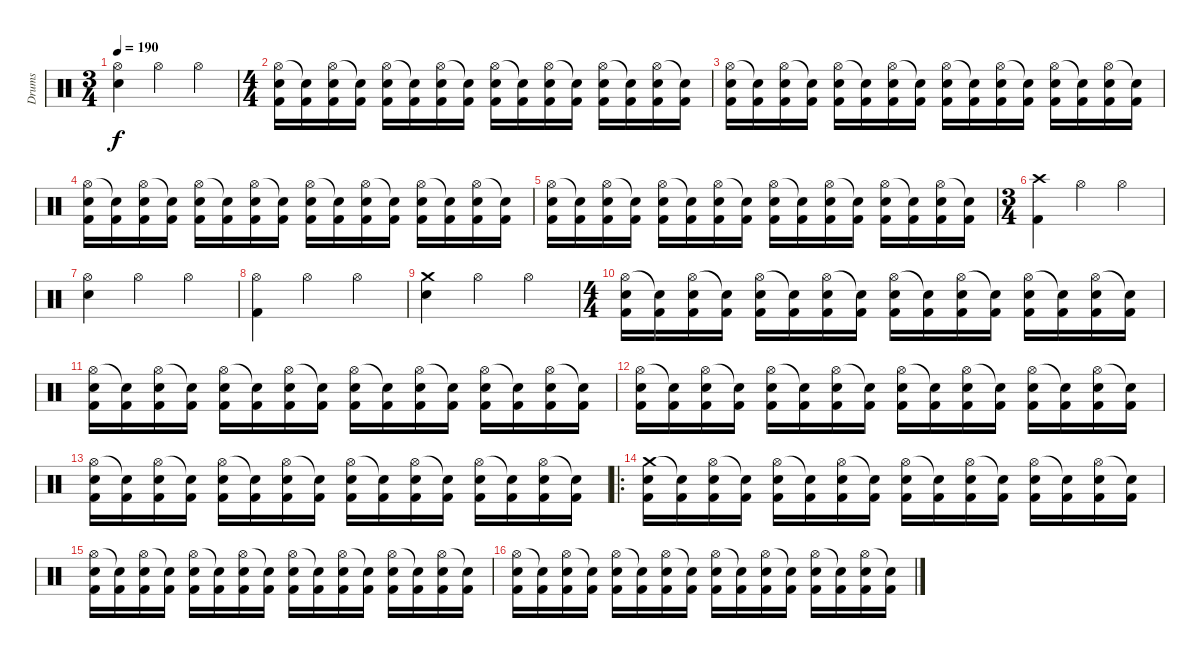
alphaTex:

\track ("Drums" "Drums") {instrument percussion}
\staff {score}
\articulation defaults
\ts (3 4)
\tempo 190
\clef neutral
\ks c
("Hi-Hat (open)" "Electric Snare (hit)").4{dy f} "Hi-Hat (open)".4 "Hi-Hat (open)".4 |
\ts (4 4)
("Hi-Hat (open)" "Electric Snare (hit)" "Kick (hit) 2").16 ("Snare (hit)"{t} "Kick (hit) 2").16 ("Hi-Hat (open)" "Electric Snare (hit)" "Kick (hit) 2").16 ("Snare (hit)"{t} "Kick (hit) 2").16 ("Hi-Hat (open)" "Electric Snare (hit)" "Kick (hit) 2").16 ("Snare (hit)"{t} "Kick (hit) 2").16 ("Hi-Hat (open)" "Electric Snare (hit)" "Kick (hit) 2").16 ("Snare (hit)"{t} "Kick (hit) 2").16 ("Hi-Hat (open)" "Electric Snare (hit)" "Kick (hit) 2").16 ("Snare (hit)"{t} "Kick (hit) 2").16 ("Hi-Hat (open)" "Electric Snare (hit)" "Kick (hit) 2").16 ("Snare (hit)"{t} "Kick (hit) 2").16 ("Hi-Hat (open)" "Electric Snare (hit)" "Kick (hit) 2").16 ("Snare (hit)"{t} "Kick (hit) 2").16 ("Hi-Hat (open)" "Electric Snare (hit)" "Kick (hit) 2").16 ("Snare (hit)"{t} "Kick (hit) 2").16 |
("Hi-Hat (open)" "Electric Snare (hit)" "Kick (hit) 2").16 ("Snare (hit)"{t} "Kick (hit) 2").16 ("Hi-Hat (open)" "Electric Snare (hit)" "Kick (hit) 2").16 ("Snare (hit)"{t} "Kick (hit) 2").16 ("Hi-Hat (open)" "Electric Snare (hit)" "Kick (hit) 2").16 ("Snare (hit)"{t} "Kick (hit) 2").16 ("Hi-Hat (open)" "Electric Snare (hit)" "Kick (hit) 2").16 ("Snare (hit)"{t} "Kick (hit) 2").16 ("Hi-Hat (open)" "Electric Snare (hit)" "Kick (hit) 2").16 ("Snare (hit)"{t} "Kick (hit) 2").16 ("Hi-Hat (open)" "Electric Snare (hit)" "Kick (hit) 2").16 ("Snare (hit)"{t} "Kick (hit) 2").16 ("Hi-Hat (open)" "Electric Snare (hit)" "Kick (hit) 2").16 ("Snare (hit)"{t} "Kick (hit) 2").16 ("Hi-Hat (open)" "Electric Snare (hit)" "Kick (hit) 2").16 ("Snare (hit)"{t} "Kick (hit) 2").16 |
("Hi-Hat (open)" "Electric Snare (hit)" "Kick (hit) 2").16 ("Snare (hit)"{t} "Kick (hit) 2").16 ("Hi-Hat (open)" "Electric Snare (hit)" "Kick (hit) 2").16 ("Snare (hit)"{t} "Kick (hit) 2").16 ("Hi-Hat (open)" "Electric Snare (hit)" "Kick (hit) 2").16 ("Snare (hit)"{t} "Kick (hit) 2").16 ("Hi-Hat (open)" "Electric Snare (hit)" "Kick (hit) 2").16 ("Snare (hit)"{t} "Kick (hit) 2").16 ("Hi-Hat (open)" "Electric Snare (hit)" "Kick (hit) 2").16 ("Snare (hit)"{t} "Kick (hit) 2").16 ("Hi-Hat (open)" "Electric Snare (hit)" "Kick (hit) 2").16 ("Snare (hit)"{t} "Kick (hit) 2").16 ("Hi-Hat (open)" "Electric Snare (hit)" "Kick (hit) 2").16 ("Snare (hit)"{t} "Kick (hit) 2").16 ("Hi-Hat (open)" "Electric Snare (hit)" "Kick (hit) 2").16 ("Snare (hit)"{t} "Kick (hit) 2").16 |
("Hi-Hat (open)" "Electric Snare (hit)" "Kick (hit) 2").16 ("Snare (hit)"{t} "Kick (hit) 2").16 ("Hi-Hat (open)" "Electric Snare (hit)" "Kick (hit) 2").16 ("Snare (hit)"{t} "Kick (hit) 2").16 ("Hi-Hat (open)" "Electric Snare (hit)" "Kick (hit) 2").16 ("Snare (hit)"{t} "Kick (hit) 2").16 ("Hi-Hat (open)" "Electric Snare (hit)" "Kick (hit) 2").16 ("Snare (hit)"{t} "Kick (hit) 2").16 ("Hi-Hat (open)" "Electric Snare (hit)" "Kick (hit) 2").16 ("Snare (hit)"{t} "Kick (hit) 2").16 ("Hi-Hat (open)" "Electric Snare (hit)" "Kick (hit) 2").16 ("Snare (hit)"{t} "Kick (hit) 2").16 ("Hi-Hat (open)" "Electric Snare (hit)" "Kick (hit) 2").16 ("Snare (hit)"{t} "Kick (hit) 2").16 ("Hi-Hat (open)" "Electric Snare (hit)" "Kick (hit) 2").16 ("Snare (hit)"{t} "Kick (hit) 2").16 |
\ts (3 4)
("Crash high (hit)" "Kick (hit) 2").4 "Hi-Hat (open)".4 "Hi-Hat (open)".4 |
("Hi-Hat (open)" "Electric Snare (hit)").4 "Hi-Hat (open)".4 "Hi-Hat (open)".4 |
("Hi-Hat (open)" "Kick (hit) 2").4 "Hi-Hat (open)".4 "Hi-Hat (open)".4 |
("Crash medium (hit)" "Electric Snare (hit)").4 "Hi-Hat (open)".4 "Hi-Hat (open)".4 |
\ts (4 4)
("Hi-Hat (open)" "Electric Snare (hit)" "Kick (hit) 2").16 ("Snare (hit)"{t} "Kick (hit) 2").16 ("Hi-Hat (open)" "Electric Snare (hit)" "Kick (hit) 2").16 ("Snare (hit)"{t} "Kick (hit) 2").16 ("Hi-Hat (open)" "Electric Snare (hit)" "Kick (hit) 2").16 ("Snare (hit)"{t} "Kick (hit) 2").16 ("Hi-Hat (open)" "Electric Snare (hit)" "Kick (hit) 2").16 ("Snare (hit)"{t} "Kick (hit) 2").16 ("Hi-Hat (open)" "Electric Snare (hit)" "Kick (hit) 2").16 ("Snare (hit)"{t} "Kick (hit) 2").16 ("Hi-Hat (open)" "Electric Snare (hit)" "Kick (hit) 2").16 ("Snare (hit)"{t} "Kick (hit) 2").16 ("Hi-Hat (open)" "Electric Snare (hit)" "Kick (hit) 2").16 ("Snare (hit)"{t} "Kick (hit) 2").16 ("Hi-Hat (open)" "Electric Snare (hit)" "Kick (hit) 2").16 ("Snare (hit)"{t} "Kick (hit) 2").16 |
("Hi-Hat (open)" "Electric Snare (hit)" "Kick (hit) 2").16 ("Snare (hit)"{t} "Kick (hit) 2").16 ("Hi-Hat (open)" "Electric Snare (hit)" "Kick (hit) 2").16 ("Snare (hit)"{t} "Kick (hit) 2").16 ("Hi-Hat (open)" "Electric Snare (hit)" "Kick (hit) 2").16 ("Snare (hit)"{t} "Kick (hit) 2").16 ("Hi-Hat (open)" "Electric Snare (hit)" "Kick (hit) 2").16 ("Snare (hit)"{t} "Kick (hit) 2").16 ("Hi-Hat (open)" "Electric Snare (hit)" "Kick (hit) 2").16 ("Snare (hit)"{t} "Kick (hit) 2").16 ("Hi-Hat (open)" "Electric Snare (hit)" "Kick (hit) 2").16 ("Snare (hit)"{t} "Kick (hit) 2").16 ("Hi-Hat (open)" "Electric Snare (hit)" "Kick (hit) 2").16 ("Snare (hit)"{t} "Kick (hit) 2").16 ("Hi-Hat (open)" "Electric Snare (hit)" "Kick (hit) 2").16 ("Snare (hit)"{t} "Kick (hit) 2").16 |
("Hi-Hat (open)" "Electric Snare (hit)" "Kick (hit) 2").16 ("Snare (hit)"{t} "Kick (hit) 2").16 ("Hi-Hat (open)" "Electric Snare (hit)" "Kick (hit) 2").16 ("Snare (hit)"{t} "Kick (hit) 2").16 ("Hi-Hat (open)" "Electric Snare (hit)" "Kick (hit) 2").16 ("Snare (hit)"{t} "Kick (hit) 2").16 ("Hi-Hat (open)" "Electric Snare (hit)" "Kick (hit) 2").16 ("Snare (hit)"{t} "Kick (hit) 2").16 ("Hi-Hat (open)" "Electric Snare (hit)" "Kick (hit) 2").16 ("Snare (hit)"{t} "Kick (hit) 2").16 ("Hi-Hat (open)" "Electric Snare (hit)" "Kick (hit) 2").16 ("Snare (hit)"{t} "Kick (hit) 2").16 ("Hi-Hat (open)" "Electric Snare (hit)" "Kick (hit) 2").16 ("Snare (hit)"{t} "Kick (hit) 2").16 ("Hi-Hat (open)" "Electric Snare (hit)" "Kick (hit) 2").16 ("Snare (hit)"{t} "Kick (hit) 2").16 |
("Hi-Hat (open)" "Electric Snare (hit)" "Kick (hit) 2").16 ("Snare (hit)"{t} "Kick (hit) 2").16 ("Hi-Hat (open)" "Electric Snare (hit)" "Kick (hit) 2").16 ("Snare (hit)"{t} "Kick (hit) 2").16 ("Hi-Hat (open)" "Electric Snare (hit)" "Kick (hit) 2").16 ("Snare (hit)"{t} "Kick (hit) 2").16 ("Hi-Hat (open)" "Electric Snare (hit)" "Kick (hit) 2").16 ("Snare (hit)"{t} "Kick (hit) 2").16 ("Hi-Hat (open)" "Electric Snare (hit)" "Kick (hit) 2").16 ("Snare (hit)"{t} "Kick (hit) 2").16 ("Hi-Hat (open)" "Electric Snare (hit)" "Kick (hit) 2").16 ("Snare (hit)"{t} "Kick (hit) 2").16 ("Hi-Hat (open)" "Electric Snare (hit)" "Kick (hit) 2").16 ("Snare (hit)"{t} "Kick (hit) 2").16 ("Hi-Hat (open)" "Electric Snare (hit)" "Kick (hit) 2").16 ("Snare (hit)"{t} "Kick (hit) 2").16 |
\ro
("Crash medium (hit)" "Electric Snare (hit)" "Kick (hit) 2").16 ("Snare (hit)"{t} "Kick (hit) 2").16 ("Hi-Hat (open)" "Electric Snare (hit)" "Kick (hit) 2").16 ("Snare (hit)"{t} "Kick (hit) 2").16 ("Hi-Hat (open)" "Electric Snare (hit)" "Kick (hit) 2").16 ("Snare (hit)"{t} "Kick (hit) 2").16 ("Hi-Hat (open)" "Electric Snare (hit)" "Kick (hit) 2").16 ("Snare (hit)"{t} "Kick (hit) 2").16 ("Hi-Hat (open)" "Electric Snare (hit)" "Kick (hit) 2").16 ("Snare (hit)"{t} "Kick (hit) 2").16 ("Hi-Hat (open)" "Electric Snare (hit)" "Kick (hit) 2").16 ("Snare (hit)"{t} "Kick (hit) 2").16 ("Hi-Hat (open)" "Electric Snare (hit)" "Kick (hit) 2").16 ("Snare (hit)"{t} "Kick (hit) 2").16 ("Hi-Hat (open)" "Electric Snare (hit)" "Kick (hit) 2").16 ("Snare (hit)"{t} "Kick (hit) 2").16 |
("Hi-Hat (open)" "Electric Snare (hit)" "Kick (hit) 2").16 ("Snare (hit)"{t} "Kick (hit) 2").16 ("Hi-Hat (open)" "Electric Snare (hit)" "Kick (hit) 2").16 ("Snare (hit)"{t} "Kick (hit) 2").16 ("Hi-Hat (open)" "Electric Snare (hit)" "Kick (hit) 2").16 ("Snare (hit)"{t} "Kick (hit) 2").16 ("Hi-Hat (open)" "Electric Snare (hit)" "Kick (hit) 2").16 ("Snare (hit)"{t} "Kick (hit) 2").16 ("Hi-Hat (open)" "Electric Snare (hit)" "Kick (hit) 2").16 ("Snare (hit)"{t} "Kick (hit) 2").16 ("Hi-Hat (open)" "Electric Snare (hit)" "Kick (hit) 2").16 ("Snare (hit)"{t} "Kick (hit) 2").16 ("Hi-Hat (open)" "Electric Snare (hit)" "Kick (hit) 2").16 ("Snare (hit)"{t} "Kick (hit) 2").16 ("Hi-Hat (open)" "Electric Snare (hit)" "Kick (hit) 2").16 ("Snare (hit)"{t} "Kick (hit) 2").16 |
("Hi-Hat (open)" "Electric Snare (hit)" "Kick (hit) 2").16 ("Snare (hit)"{t} "Kick (hit) 2").16 ("Hi-Hat (open)" "Electric Snare (hit)" "Kick (hit) 2").16 ("Snare (hit)"{t} "Kick (hit) 2").16 ("Hi-Hat (open)" "Electric Snare (hit)" "Kick (hit) 2").16 ("Snare (hit)"{t} "Kick (hit) 2").16 ("Hi-Hat (open)" "Electric Snare (hit)" "Kick (hit) 2").16 ("Snare (hit)"{t} "Kick (hit) 2").16 ("Hi-Hat (open)" "Electric Snare (hit)" "Kick (hit) 2").16 ("Snare (hit)"{t} "Kick (hit) 2").16 ("Hi-Hat (open)" "Electric Snare (hit)" "Kick (hit) 2").16 ("Snare (hit)"{t} "Kick (hit) 2").16 ("Hi-Hat (open)" "Electric Snare (hit)" "Kick (hit) 2").16 ("Snare (hit)"{t} "Kick (hit) 2").16 ("Hi-Hat (open)" "Electric Snare (hit)" "Kick (hit) 2").16 ("Snare (hit)"{t} "Kick (hit) 2").16
